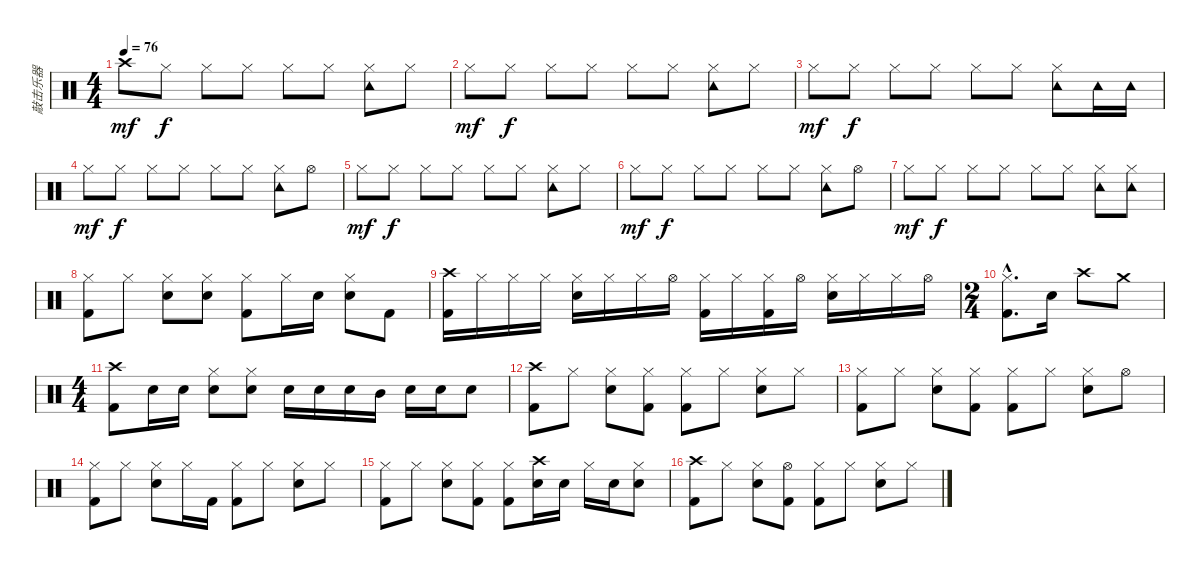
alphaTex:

\track ("敲击乐器" "敲击乐器") {instrument percussion}
\staff {score}
\articulation defaults
\ts (4 4)
\tempo 76
\clef neutral
\ks c "Crash high (hit)".8{dy mf} "Hi-Hat (closed)".8{dy f} "Hi-Hat (closed)".8 "Hi-Hat (closed)".8 "Hi-Hat (closed)".8 "Hi-Hat (closed)".8
("Hi-Hat (closed)" "Tambourine (hit)").8 "Hi-Hat (closed)".8 |
"Hi-Hat (closed)".8{dy mf} "Hi-Hat (closed)".8{dy f} "Hi-Hat (closed)".8 "Hi-Hat (closed)".8 "Hi-Hat (closed)".8 "Hi-Hat (closed)".8 ("Hi-Hat (closed)" "Tambourine (hit)").8 "Hi-Hat (closed)".8 |
"Hi-Hat (closed)".8{dy mf} "Hi-Hat (closed)".8{dy f} "Hi-Hat (closed)".8 "Hi-Hat (closed)".8 "Hi-Hat (closed)".8 "Hi-Hat (closed)".8 ("Hi-Hat (closed)" "Tambourine (hit)").8 "Tambourine (hit)".16 "Tambourine (hit)".16 |
"Hi-Hat (closed)".8{dy mf} "Hi-Hat (closed)".8{dy f} "Hi-Hat (closed)".8 "Hi-Hat (closed)".8 "Hi-Hat (closed)".8 "Hi-Hat (closed)".8 ("Hi-Hat (closed)" "Tambourine (hit)").8 "Hi-Hat (open)".8 |
"Hi-Hat (closed)".8{dy mf} "Hi-Hat (closed)".8{dy f} "Hi-Hat (closed)".8 "Hi-Hat (closed)".8 "Hi-Hat (closed)".8 "Hi-Hat (closed)".8 ("Hi-Hat (closed)" "Tambourine (hit)").8 "Hi-Hat (closed)".8 |
"Hi-Hat (closed)".8{dy mf} "Hi-Hat (closed)".8{dy f} "Hi-Hat (closed)".8 "Hi-Hat (closed)".8 "Hi-Hat (closed)".8 "Hi-Hat (closed)".8 ("Hi-Hat (closed)" "Tambourine (hit)").8 "Hi-Hat (open)".8 |
"Hi-Hat (closed)".8{dy mf} "Hi-Hat (closed)".8{dy f} "Hi-Hat (closed)".8 "Hi-Hat (closed)".8 "Hi-Hat (closed)".8 "Hi-Hat (closed)".8 ("Hi-Hat (closed)" "Tambourine (hit)").8 ("Hi-Hat (closed)" "Tambourine (hit)").8 |
("Hi-Hat (closed)" "Kick (hit) 2").8 "Hi-Hat (closed)".8 ("Hi-Hat (closed)" "Snare (hit) 2").8 ("Hi-Hat (closed)" "Snare (hit) 2").8 ("Hi-Hat (closed)" "Kick (hit) 2").8 "Hi-Hat (closed)".16 "Snare (hit) 2".16 ("Hi-Hat (closed)" "Snare (hit) 2").8 "Kick (hit) 2".8 |
("Crash high (hit)" "Kick (hit) 2").16 "Hi-Hat (closed)".16 "Hi-Hat (closed)".16 "Hi-Hat (closed)".16 ("Hi-Hat (closed)" "Snare (hit) 2").16 "Hi-Hat (closed)".16 "Hi-Hat (closed)".16 "Hi-Hat (open)".16 ("Hi-Hat (closed)" "Kick (hit) 2").16 "Hi-Hat (closed)".16 ("Hi-Hat (closed)" "Kick (hit) 2").16 "Hi-Hat (open)".16 ("Hi-Hat (closed)" "Snare (hit) 2").16 "Hi-Hat (closed)".16 "Hi-Hat (closed)".16 "Hi-Hat (open)".16 |
\ts (2 4)
("Hi-Hat (closed)"{hac} "Kick (hit) 2"{hac}).8{d} "Snare (hit) 2".16 "Crash high (hit)".8 "Crash medium (hit)".8 |
\ts (4 4)
("Crash high (hit)" "Kick (hit) 2").8 "Snare (hit) 2".16 "Snare (hit) 2".16 ("Hi-Hat (closed)" "Snare (hit) 2").8 ("Hi-Hat (closed)" "Snare (hit) 2").8 "Snare (hit) 2".16 "Snare (hit) 2".16 "Snare (hit) 2".16 "Mid Tom (hit)".16 "Snare (hit) 2".16 "Snare (hit) 2".16 "Snare (hit) 2".8 |
("Crash high (hit)" "Kick (hit) 2").8 "Hi-Hat (closed)".8 ("Hi-Hat (closed)" "Snare (hit) 2").8 ("Hi-Hat (closed)" "Kick (hit) 2").8 ("Hi-Hat (closed)" "Kick (hit) 2").8 "Hi-Hat (closed)".8 ("Hi-Hat (closed)" "Snare (hit) 2").8 "Hi-Hat (closed)".8 |
("Hi-Hat (closed)" "Kick (hit) 2").8 "Hi-Hat (closed)".8 ("Hi-Hat (closed)" "Snare (hit) 2").8 ("Hi-Hat (closed)" "Kick (hit) 2").8 ("Hi-Hat (closed)" "Kick (hit) 2").8 "Hi-Hat (closed)".8 ("Hi-Hat (closed)" "Snare (hit) 2").8 "Hi-Hat (open)".8 |
("Hi-Hat (closed)" "Kick (hit) 2").8 "Hi-Hat (closed)".8 ("Hi-Hat (closed)" "Snare (hit) 2").8 "Hi-Hat (closed)".16 "Kick (hit) 2".16 ("Hi-Hat (closed)" "Kick (hit) 2").8 "Hi-Hat (closed)".8 ("Hi-Hat (closed)" "Snare (hit) 2").8 "Hi-Hat (closed)".8 |
("Hi-Hat (closed)" "Kick (hit) 2").8 "Hi-Hat (closed)".8 ("Hi-Hat (closed)" "Snare (hit) 2").8 ("Hi-Hat (closed)" "Kick (hit) 2").8 ("Hi-Hat (closed)" "Kick (hit) 2").8 ("Crash high (hit)" "Snare (hit) 2").16 "Snare (hit) 2".16 "Hi-Hat (closed)".16 "Snare (hit) 2".16 ("Hi-Hat (closed)" "Snare (hit) 2").8 |
("Crash high (hit)" "Kick (hit) 2").8 "Hi-Hat (closed)".8 ("Hi-Hat (closed)" "Snare (hit) 2").8 ("Hi-Hat (open)" "Kick (hit) 2").8 ("Hi-Hat (closed)" "Kick (hit) 2").8 "Hi-Hat (closed)".8 ("Hi-Hat (closed)" "Snare (hit) 2").8 "Hi-Hat (closed)".8
